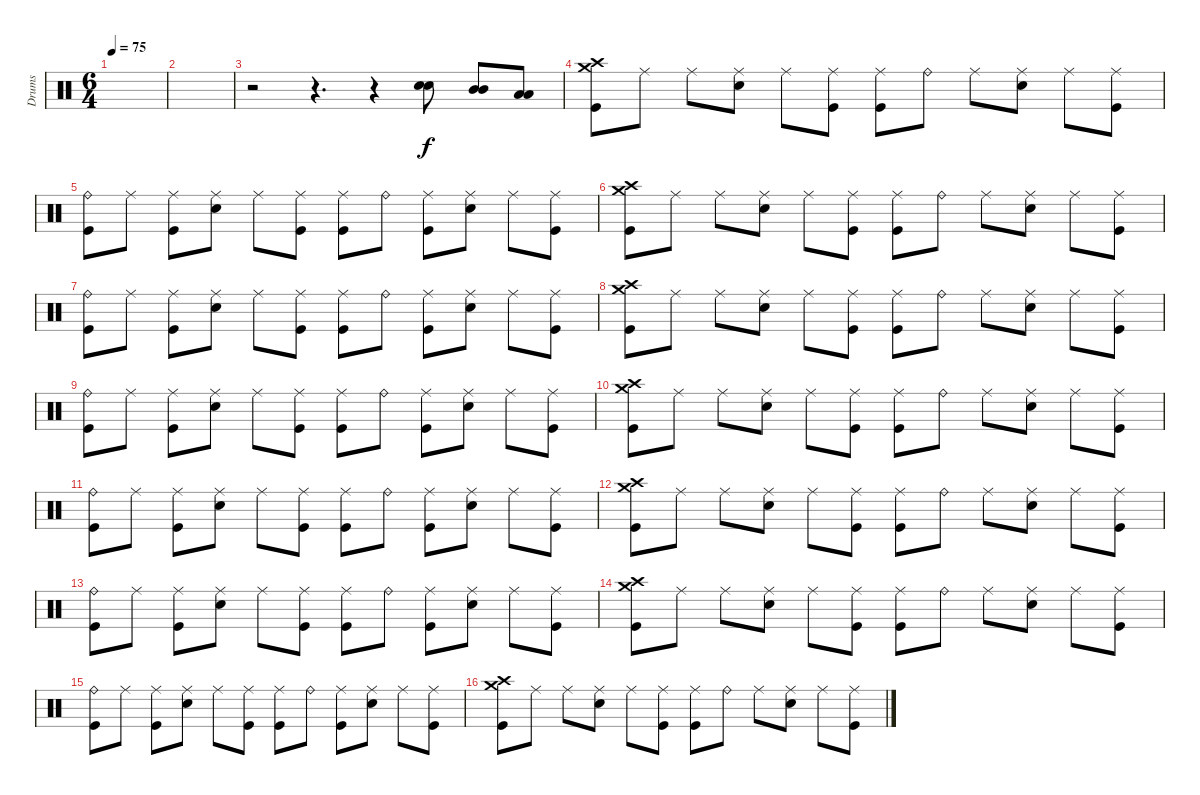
\track ("Drums" "Drums") {instrument percussion}
\staff {score}
\articulation defaults
\ts (6 4)
\tempo 75
\clef neutral
\ks c
|
|
r.2 r.4{d} r.4 ("Snare (hit) 2" "Snare (hit) 2").8 ("Mid Tom (hit)" "Mid Tom (hit)").8 ("Low Tom (hit)" "Low Tom (hit)").8 |
("Crash high (hit)" "Crash medium (hit)" "Kick (hit)").8 "Ride (middle)".8 "Ride (middle)".8 ("Ride (middle)" "Snare (hit) 2").8 "Ride (middle)".8 ("Ride (middle)" "Kick (hit)").8 ("Ride (middle)" "Kick (hit)").8 "Ride (bell)".8 "Ride (middle)".8 ("Ride (middle)" "Snare (hit) 2").8 "Ride (middle)".8 ("Ride (middle)" "Kick (hit)").8 |
("Ride (bell)" "Kick (hit)").8 "Ride (middle)".8 ("Ride (middle)" "Kick (hit)").8 ("Ride (middle)" "Snare (hit) 2").8 "Ride (middle)".8 ("Ride (middle)" "Kick (hit)").8 ("Ride (middle)" "Kick (hit)").8 "Ride (bell)".8 ("Ride (middle)" "Kick (hit)").8 ("Ride (middle)" "Snare (hit) 2").8 "Ride (middle)".8 ("Ride (middle)" "Kick (hit)").8 |
("Crash high (hit)" "Crash medium (hit)" "Kick (hit)").8 "Ride (middle)".8 "Ride (middle)".8 ("Ride (middle)" "Snare (hit) 2").8 "Ride (middle)".8 ("Ride (middle)" "Kick (hit)").8 ("Ride (middle)" "Kick (hit)").8 "Ride (bell)".8 "Ride (middle)".8 ("Ride (middle)" "Snare (hit) 2").8 "Ride (middle)".8 ("Ride (middle)" "Kick (hit)").8 |
("Ride (bell)" "Kick (hit)").8 "Ride (middle)".8 ("Ride (middle)" "Kick (hit)").8 ("Ride (middle)" "Snare (hit) 2").8 "Ride (middle)".8 ("Ride (middle)" "Kick (hit)").8 ("Ride (middle)" "Kick (hit)").8 "Ride (bell)".8 ("Ride (middle)" "Kick (hit)").8 ("Ride (middle)" "Snare (hit) 2").8 "Ride (middle)".8 ("Ride (middle)" "Kick (hit)").8 |
("Crash high (hit)" "Crash medium (hit)" "Kick (hit)").8 "Ride (middle)".8 "Ride (middle)".8 ("Ride (middle)" "Snare (hit) 2").8 "Ride (middle)".8 ("Ride (middle)" "Kick (hit)").8 ("Ride (middle)" "Kick (hit)").8 "Ride (bell)".8 "Ride (middle)".8 ("Ride (middle)" "Snare (hit) 2").8 "Ride (middle)".8 ("Ride (middle)" "Kick (hit)").8 |
("Ride (bell)" "Kick (hit)").8 "Ride (middle)".8 ("Ride (middle)" "Kick (hit)").8 ("Ride (middle)" "Snare (hit) 2").8 "Ride (middle)".8 ("Ride (middle)" "Kick (hit)").8 ("Ride (middle)" "Kick (hit)").8 "Ride (bell)".8 ("Ride (middle)" "Kick (hit)").8 ("Ride (middle)" "Snare (hit) 2").8 "Ride (middle)".8 ("Ride (middle)" "Kick (hit)").8 |
("Crash high (hit)" "Crash medium (hit)" "Kick (hit)").8 "Ride (middle)".8 "Ride (middle)".8 ("Ride (middle)" "Snare (hit) 2").8 "Ride (middle)".8 ("Ride (middle)" "Kick (hit)").8 ("Ride (middle)" "Kick (hit)").8 "Ride (bell)".8 "Ride (middle)".8 ("Ride (middle)" "Snare (hit) 2").8 "Ride (middle)".8 ("Ride (middle)" "Kick (hit)").8 |
("Ride (bell)" "Kick (hit)").8 "Ride (middle)".8 ("Ride (middle)" "Kick (hit)").8 ("Ride (middle)" "Snare (hit) 2").8 "Ride (middle)".8 ("Ride (middle)" "Kick (hit)").8 ("Ride (middle)" "Kick (hit)").8 "Ride (bell)".8 ("Ride (middle)" "Kick (hit)").8 ("Ride (middle)" "Snare (hit) 2").8 "Ride (middle)".8 ("Ride (middle)" "Kick (hit)").8 |
("Crash high (hit)" "Crash medium (hit)" "Kick (hit)").8 "Ride (middle)".8 "Ride (middle)".8 ("Ride (middle)" "Snare (hit) 2").8 "Ride (middle)".8 ("Ride (middle)" "Kick (hit)").8 ("Ride (middle)" "Kick (hit)").8 "Ride (bell)".8 "Ride (middle)".8 ("Ride (middle)" "Snare (hit) 2").8 "Ride (middle)".8 ("Ride (middle)" "Kick (hit)").8 |
("Ride (bell)" "Kick (hit)").8 "Ride (middle)".8 ("Ride (middle)" "Kick (hit)").8 ("Ride (middle)" "Snare (hit) 2").8 "Ride (middle)".8 ("Ride (middle)" "Kick (hit)").8 ("Ride (middle)" "Kick (hit)").8 "Ride (bell)".8 ("Ride (middle)" "Kick (hit)").8 ("Ride (middle)" "Snare (hit) 2").8 "Ride (middle)".8 ("Ride (middle)" "Kick (hit)").8 |
("Crash high (hit)" "Crash medium (hit)" "Kick (hit)").8 "Ride (middle)".8 "Ride (middle)".8 ("Ride (middle)" "Snare (hit) 2").8 "Ride (middle)".8 ("Ride (middle)" "Kick (hit)").8 ("Ride (middle)" "Kick (hit)").8 "Ride (bell)".8 "Ride (middle)".8 ("Ride (middle)" "Snare (hit) 2").8 "Ride (middle)".8 ("Ride (middle)" "Kick (hit)").8 |
("Ride (bell)" "Kick (hit)").8 "Ride (middle)".8 ("Ride (middle)" "Kick (hit)").8 ("Ride (middle)" "Snare (hit) 2").8 "Ride (middle)".8 ("Ride (middle)" "Kick (hit)").8 ("Ride (middle)" "Kick (hit)").8 "Ride (bell)".8 ("Ride (middle)" "Kick (hit)").8 ("Ride (middle)" "Snare (hit) 2").8 "Ride (middle)".8 ("Ride (middle)" "Kick (hit)").8 |
("Crash high (hit)" "Crash medium (hit)" "Kick (hit)").8 "Ride (middle)".8 "Ride (middle)".8 ("Ride (middle)" "Snare (hit) 2").8 "Ride (middle)".8 ("Ride (middle)" "Kick (hit)").8 ("Ride (middle)" "Kick (hit)").8 "Ride (bell)".8 "Ride (middle)".8 ("Ride (middle)" "Snare (hit) 2").8 "Ride (middle)".8 ("Ride (middle)" "Kick (hit)").8
